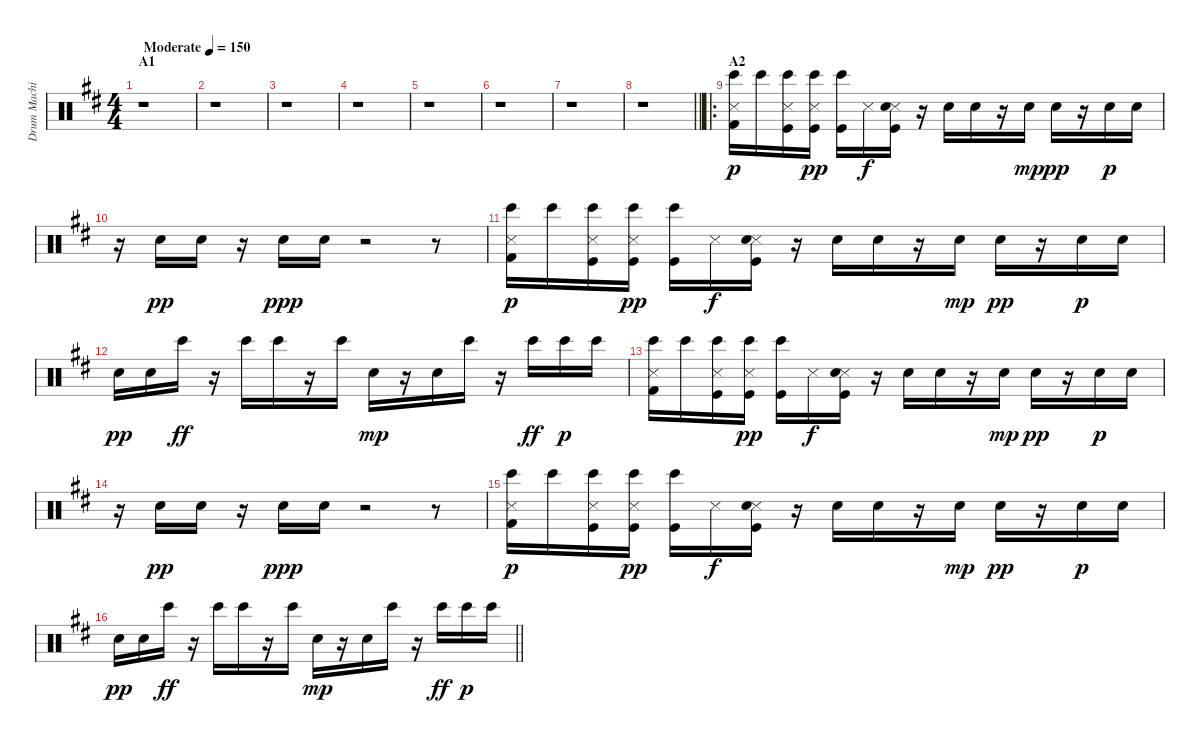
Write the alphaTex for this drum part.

\track ("Drum Machine" "Drum Machi") {instrument percussion}
\staff {score}
\articulation defaults
\ts (4 4)
\section ("" "A1")
\tempo (150 "Moderate")
\clef neutral
\ks d
r.1{dy p} |
r.1 |
r.1 |
r.1 |
r.1 |
r.1 |
r.1 |
\barLineRight lightlight
r.1 |
\ro
\section ("" "A2")
("Metronome (hit)" "Bongo High (hit)" "Kick (hit) 2").16 "Bongo High (hit)".16 ("Metronome (hit)" "Bongo High (hit)" "Kick (hit)").16 ("Snare (side stick) 3" "Bongo High (hit)" "Kick (hit)").16{dy pp} ("Bongo High (hit)" "Kick (hit)").16 "Metronome (hit)".16{dy f} ("Snare (side stick) 3" "Electric Snare (hit)" "Kick (hit)").16 r.16 "Electric Snare (hit)".16 "Electric Snare (hit)".16 r.16 "Electric Snare (hit)".16{dy mp} "Electric Snare (hit)".16{dy pp} r.16 "Electric Snare (hit)".16{dy p} "Electric Snare (hit)".16 |
r.16 "Electric Snare (hit)".16{dy pp} "Electric Snare (hit)".16 r.16 "Electric Snare (hit)".16{dy ppp} "Electric Snare (hit)".16 r.2 r.8 |
("Metronome (hit)" "Bongo High (hit)" "Kick (hit) 2").16{dy p} "Bongo High (hit)".16 ("Metronome (hit)" "Bongo High (hit)" "Kick (hit)").16 ("Snare (side stick) 3" "Bongo High (hit)" "Kick (hit)").16{dy pp} ("Bongo High (hit)" "Kick (hit)").16 "Metronome (hit)".16{dy f} ("Snare (side stick) 3" "Electric Snare (hit)" "Kick (hit)").16 r.16 "Electric Snare (hit)".16 "Electric Snare (hit)".16 r.16 "Electric Snare (hit)".16{dy mp} "Electric Snare (hit)".16{dy pp} r.16 "Electric Snare (hit)".16{dy p} "Electric Snare (hit)".16 |
"Electric Snare (hit)".16{dy pp} "Electric Snare (hit)".16 "Bongo High (hit)".16{dy ff} r.16 "Bongo High (hit)".16 "Bongo High (hit)".16 r.16 "Bongo High (hit)".16 "Snare (hit) 2".16{dy mp} r.16 "Snare (hit) 2".16 "Bongo High (hit)".16 r.16 "Bongo High (hit)".16{dy ff} "Bongo High (hit)".16{dy p} "Bongo High (hit)".16 |
("Metronome (hit)" "Bongo High (hit)" "Kick (hit) 2").16 "Bongo High (hit)".16 ("Metronome (hit)" "Bongo High (hit)" "Kick (hit)").16 ("Snare (side stick) 3" "Bongo High (hit)" "Kick (hit)").16{dy pp} ("Bongo High (hit)" "Kick (hit)").16 "Metronome (hit)".16{dy f} ("Snare (side stick) 3" "Electric Snare (hit)" "Kick (hit)").16 r.16 "Electric Snare (hit)".16 "Electric Snare (hit)".16 r.16 "Electric Snare (hit)".16{dy mp} "Electric Snare (hit)".16{dy pp} r.16 "Electric Snare (hit)".16{dy p} "Electric Snare (hit)".16 |
r.16 "Electric Snare (hit)".16{dy pp} "Electric Snare (hit)".16 r.16 "Electric Snare (hit)".16{dy ppp} "Electric Snare (hit)".16 r.2 r.8 |
("Metronome (hit)" "Bongo High (hit)" "Kick (hit) 2").16{dy p} "Bongo High (hit)".16 ("Metronome (hit)" "Bongo High (hit)" "Kick (hit)").16 ("Snare (side stick) 3" "Bongo High (hit)" "Kick (hit)").16{dy pp} ("Bongo High (hit)" "Kick (hit)").16 "Metronome (hit)".16{dy f} ("Snare (side stick) 3" "Electric Snare (hit)" "Kick (hit)").16 r.16 "Electric Snare (hit)".16 "Electric Snare (hit)".16 r.16 "Electric Snare (hit)".16{dy mp} "Electric Snare (hit)".16{dy pp} r.16 "Electric Snare (hit)".16{dy p} "Electric Snare (hit)".16 |
\barLineRight lightlight "Electric Snare (hit)".16{dy pp} "Electric Snare (hit)".16 "Bongo High (hit)".16{dy ff}
r.16 "Bongo High (hit)".16 "Bongo High (hit)".16 r.16 "Bongo High (hit)".16 "Snare (hit) 2".16{dy mp} r.16 "Snare (hit) 2".16 "Bongo High (hit)".16 r.16 "Bongo High (hit)".16{dy ff} "Bongo High (hit)".16{dy p} "Bongo High (hit)".16
